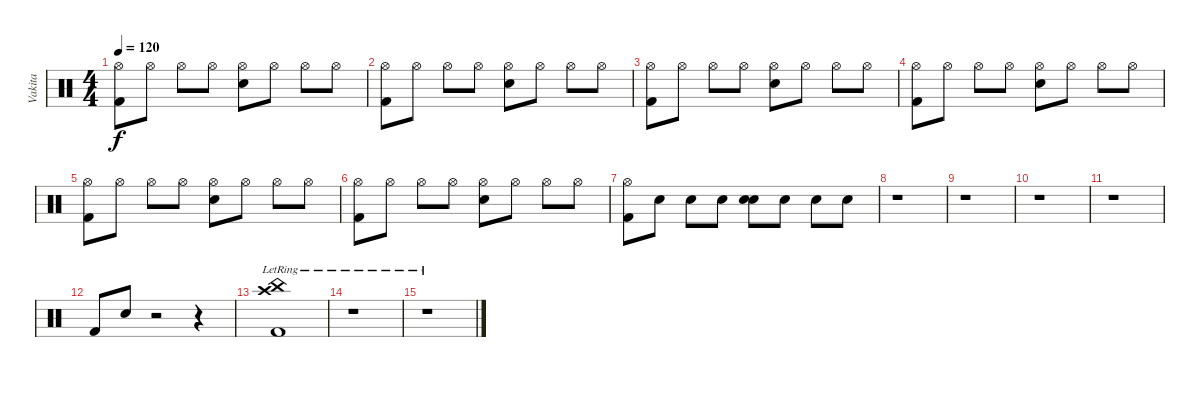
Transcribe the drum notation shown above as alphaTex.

\track ("Vakita" "Vakita") {instrument percussion}
\staff {score}
\articulation defaults
\ts (4 4)
\tempo 120
\clef neutral
\ks c
("Hi-Hat (open)" "Kick (hit) 2").8{dy f} "Hi-Hat (open)".8 "Hi-Hat (open)".8 "Hi-Hat (open)".8 ("Hi-Hat (open)" "Snare (hit) 2").8 "Hi-Hat (open)".8 "Hi-Hat (open)".8 "Hi-Hat (open)".8 |
("Hi-Hat (open)" "Kick (hit) 2").8 "Hi-Hat (open)".8 "Hi-Hat (open)".8 "Hi-Hat (open)".8 ("Hi-Hat (open)" "Snare (hit) 2").8 "Hi-Hat (open)".8 "Hi-Hat (open)".8 "Hi-Hat (open)".8 |
("Hi-Hat (open)" "Kick (hit) 2").8 "Hi-Hat (open)".8 "Hi-Hat (open)".8 "Hi-Hat (open)".8 ("Hi-Hat (open)" "Snare (hit) 2").8 "Hi-Hat (open)".8 "Hi-Hat (open)".8 "Hi-Hat (open)".8 |
("Hi-Hat (open)" "Kick (hit) 2").8 "Hi-Hat (open)".8 "Hi-Hat (open)".8 "Hi-Hat (open)".8 ("Hi-Hat (open)" "Snare (hit) 2").8 "Hi-Hat (open)".8 "Hi-Hat (open)".8 "Hi-Hat (open)".8 |
("Hi-Hat (open)" "Kick (hit) 2").8 "Hi-Hat (open)".8 "Hi-Hat (open)".8 "Hi-Hat (open)".8 ("Hi-Hat (open)" "Snare (hit) 2").8 "Hi-Hat (open)".8 "Hi-Hat (open)".8 "Hi-Hat (open)".8 |
("Hi-Hat (open)" "Kick (hit) 2").8 "Hi-Hat (open)".8 "Hi-Hat (open)".8 "Hi-Hat (open)".8 ("Hi-Hat (open)" "Snare (hit) 2").8 "Hi-Hat (open)".8 "Hi-Hat (open)".8 "Hi-Hat (open)".8 |
("Hi-Hat (open)" "Kick (hit) 2").8 "Snare (hit) 2".8 "Snare (hit) 2".8 "Snare (hit) 2".8 ("Snare (hit) 2" "Snare (hit) 2").8 "Snare (hit) 2".8 "Snare (hit) 2".8 "Snare (hit) 2".8 |
r.1 |
r.1 |
r.1 |
r.1 |
"Kick (hit) 2".8 "Snare (hit) 2".8 r.2 r.4 |
("Crash high (hit)" "China (hit)" "Kick (hit) 2"{lr}).1 |
r.1 |
r.1
